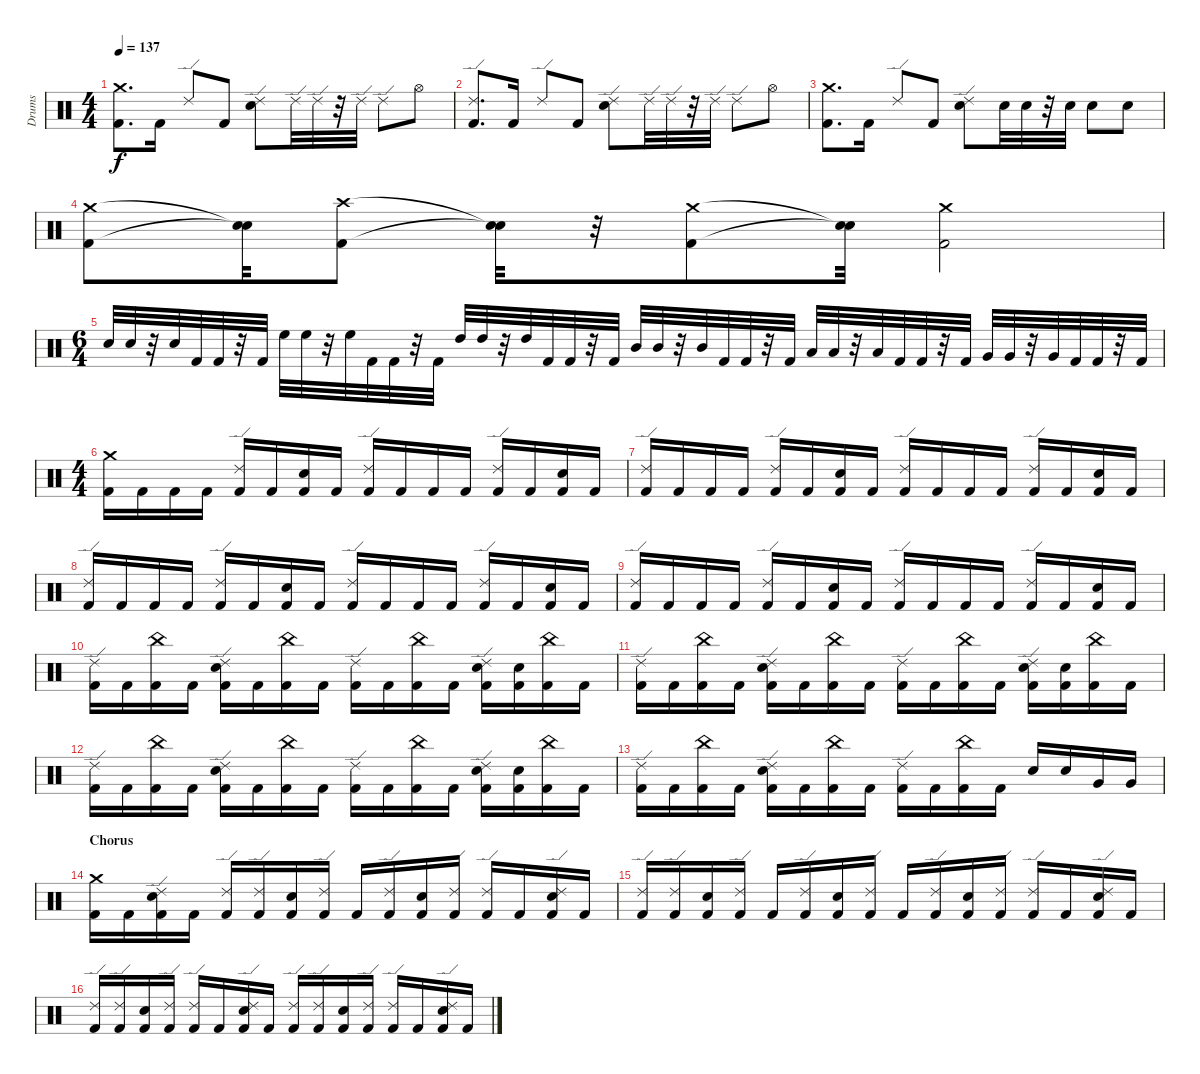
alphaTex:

\track ("Drums" "Drums") {instrument percussion}
\staff {score}
\articulation defaults
\ts (4 4)
\tempo 137
\clef neutral
\ks c
("Crash medium (hit)" "Kick (hit) 2").8{d dy f} "Kick (hit) 2".16 "Ride (edge) 2".8 "Kick (hit) 2".8 ("Ride (edge) 2" "Electric Snare (hit)").8 "Ride (edge) 2".32 "Ride (edge) 2".32 r.32 "Ride (edge) 2".32 "Ride (edge) 2".8 "Hi-Hat (open)".8 |
("Ride (edge) 2" "Kick (hit) 2").8{d} "Kick (hit) 2".16 "Ride (edge) 2".8 "Kick (hit) 2".8 ("Ride (edge) 2" "Electric Snare (hit)").8 "Ride (edge) 2".32 "Ride (edge) 2".32 r.32 "Ride (edge) 2".32 "Ride (edge) 2".8 "Hi-Hat (open)".8 |
("Crash medium (hit)" "Kick (hit) 2").8{d} "Kick (hit) 2".16 "Ride (edge) 2".8 "Kick (hit) 2".8 ("Ride (edge) 2" "Electric Snare (hit)").8 "Electric Snare (hit)".32 "Electric Snare (hit)".32 r.32 "Electric Snare (hit)".32 "Electric Snare (hit)".8 "Electric Snare (hit)".8 |
("Crash medium (hit)" "Kick (hit) 2").8 ("Snare (hit)"{t} "Snare (hit)"{t}).32 ("Crash high (hit)" "Kick (hit) 2").8 ("Snare (hit)"{t} "Snare (hit)"{t}).32 r.32 ("Crash medium (hit)" "Kick (hit) 2").8 ("Snare (hit)"{t} "Snare (hit)"{t}).32 ("Crash medium (hit)" "Kick (hit) 2").2 |
\ts (6 4)
"Electric Snare (hit)".32 "Electric Snare (hit)".32 r.32 "Electric Snare (hit)".32 "Kick (hit) 2".32 "Kick (hit) 2".32 r.32 "Kick (hit) 2".32 "High Floor Tom (hit)".32 "High Floor Tom (hit)".32 r.32 "High Floor Tom (hit)".32 "Kick (hit) 2".32 "Kick (hit) 2".32 r.32 "Kick (hit) 2".32 "High Tom (hit)".32 "High Tom (hit)".32 r.32 "High Tom (hit)".32 "Kick (hit) 2".32 "Kick (hit) 2".32 r.32 "Kick (hit) 2".32 "Mid Tom (hit)".32 "Mid Tom (hit)".32 r.32 "Mid Tom (hit)".32 "Kick (hit) 2".32 "Kick (hit) 2".32 r.32 "Kick (hit) 2".32 "Low Tom (hit)".32 "Low Tom (hit)".32 r.32 "Low Tom (hit)".32 "Kick (hit) 2".32 "Kick (hit) 2".32 r.32 "Kick (hit) 2".32 "Very Low Tom (hit)".32 "Very Low Tom (hit)".32 r.32 "Very Low Tom (hit)".32 "Kick (hit) 2".32 "Kick (hit) 2".32 r.32 "Kick (hit) 2".32 |
\ts (4 4)
("Crash medium (hit)" "Kick (hit) 2").16 "Kick (hit) 2".16 "Kick (hit) 2".16 "Kick (hit) 2".16 ("Ride (edge) 2" "Kick (hit) 2").16 "Kick (hit) 2".16 ("Electric Snare (hit)" "Kick (hit) 2").16 "Kick (hit) 2".16 ("Ride (edge) 2" "Kick (hit) 2").16 "Kick (hit) 2".16 "Kick (hit) 2".16 "Kick (hit) 2".16 ("Ride (edge) 2" "Kick (hit) 2").16 "Kick (hit) 2".16 ("Electric Snare (hit)" "Kick (hit) 2").16 "Kick (hit) 2".16 |
("Ride (edge) 2" "Kick (hit) 2").16 "Kick (hit) 2".16 "Kick (hit) 2".16 "Kick (hit) 2".16 ("Ride (edge) 2" "Kick (hit) 2").16 "Kick (hit) 2".16 ("Electric Snare (hit)" "Kick (hit) 2").16 "Kick (hit) 2".16 ("Ride (edge) 2" "Kick (hit) 2").16 "Kick (hit) 2".16 "Kick (hit) 2".16 "Kick (hit) 2".16 ("Ride (edge) 2" "Kick (hit) 2").16 "Kick (hit) 2".16 ("Electric Snare (hit)" "Kick (hit) 2").16 "Kick (hit) 2".16 |
("Ride (edge) 2" "Kick (hit) 2").16 "Kick (hit) 2".16 "Kick (hit) 2".16 "Kick (hit) 2".16 ("Ride (edge) 2" "Kick (hit) 2").16 "Kick (hit) 2".16 ("Electric Snare (hit)" "Kick (hit) 2").16 "Kick (hit) 2".16 ("Ride (edge) 2" "Kick (hit) 2").16 "Kick (hit) 2".16 "Kick (hit) 2".16 "Kick (hit) 2".16 ("Ride (edge) 2" "Kick (hit) 2").16 "Kick (hit) 2".16 ("Electric Snare (hit)" "Kick (hit) 2").16 "Kick (hit) 2".16 |
("Ride (edge) 2" "Kick (hit) 2").16 "Kick (hit) 2".16 "Kick (hit) 2".16 "Kick (hit) 2".16 ("Ride (edge) 2" "Kick (hit) 2").16 "Kick (hit) 2".16 ("Electric Snare (hit)" "Kick (hit) 2").16 "Kick (hit) 2".16 ("Ride (edge) 2" "Kick (hit) 2").16 "Kick (hit) 2".16 "Kick (hit) 2".16 "Kick (hit) 2".16 ("Ride (edge) 2" "Kick (hit) 2").16 "Kick (hit) 2".16 ("Electric Snare (hit)" "Kick (hit) 2").16 "Kick (hit) 2".16 |
("Ride (edge) 2" "Kick (hit) 2").16 "Kick (hit) 2".16 ("China (hit)" "Kick (hit) 2").16 "Kick (hit) 2".16 ("Ride (edge) 2" "Electric Snare (hit)" "Kick (hit) 2").16 "Kick (hit) 2".16 ("China (hit)" "Kick (hit) 2").16 "Kick (hit) 2".16 ("Ride (edge) 2" "Kick (hit) 2").16 "Kick (hit) 2".16 ("China (hit)" "Kick (hit) 2").16 "Kick (hit) 2".16 ("Ride (edge) 2" "Electric Snare (hit)" "Kick (hit) 2").16 ("Electric Snare (hit)" "Kick (hit) 2").16 ("China (hit)" "Kick (hit) 2").16 "Kick (hit) 2".16 |
("Ride (edge) 2" "Kick (hit) 2").16 "Kick (hit) 2".16 ("China (hit)" "Kick (hit) 2").16 "Kick (hit) 2".16 ("Ride (edge) 2" "Electric Snare (hit)" "Kick (hit) 2").16 "Kick (hit) 2".16 ("China (hit)" "Kick (hit) 2").16 "Kick (hit) 2".16 ("Ride (edge) 2" "Kick (hit) 2").16 "Kick (hit) 2".16 ("China (hit)" "Kick (hit) 2").16 "Kick (hit) 2".16 ("Ride (edge) 2" "Electric Snare (hit)" "Kick (hit) 2").16 ("Electric Snare (hit)" "Kick (hit) 2").16 ("China (hit)" "Kick (hit) 2").16 "Kick (hit) 2".16 |
("Ride (edge) 2" "Kick (hit) 2").16 "Kick (hit) 2".16 ("China (hit)" "Kick (hit) 2").16 "Kick (hit) 2".16 ("Ride (edge) 2" "Electric Snare (hit)" "Kick (hit) 2").16 "Kick (hit) 2".16 ("China (hit)" "Kick (hit) 2").16 "Kick (hit) 2".16 ("Ride (edge) 2" "Kick (hit) 2").16 "Kick (hit) 2".16 ("China (hit)" "Kick (hit) 2").16 "Kick (hit) 2".16 ("Ride (edge) 2" "Electric Snare (hit)" "Kick (hit) 2").16 ("Electric Snare (hit)" "Kick (hit) 2").16 ("China (hit)" "Kick (hit) 2").16 "Kick (hit) 2".16 |
("Ride (edge) 2" "Kick (hit) 2").16 "Kick (hit) 2".16 ("China (hit)" "Kick (hit) 2").16 "Kick (hit) 2".16 ("Ride (edge) 2" "Electric Snare (hit)" "Kick (hit) 2").16 "Kick (hit) 2".16 ("China (hit)" "Kick (hit) 2").16 "Kick (hit) 2".16 ("Ride (edge) 2" "Kick (hit) 2").16 "Kick (hit) 2".16 ("China (hit)" "Kick (hit) 2").16 "Kick (hit) 2".16 "Electric Snare (hit)".16 "Electric Snare (hit)".16 "Very Low Tom (hit)".16 "Very Low Tom (hit)".16 |
\section ("" "Chorus")
("Crash medium (hit)" "Kick (hit) 2").16 "Kick (hit) 2".16 ("Ride (edge) 2" "Electric Snare (hit)" "Kick (hit) 2").16 "Kick (hit) 2".16 ("Ride (edge) 2" "Kick (hit) 2").16 ("Ride (edge) 2" "Kick (hit) 2").16 ("Electric Snare (hit)" "Kick (hit) 2").16 ("Ride (edge) 2" "Kick (hit) 2").16 "Kick (hit) 2".16 ("Ride (edge) 2" "Kick (hit) 2").16 ("Electric Snare (hit)" "Kick (hit) 2").16 ("Ride (edge) 2" "Kick (hit) 2").16 ("Ride (edge) 2" "Kick (hit) 2").16 "Kick (hit) 2".16 ("Ride (edge) 2" "Electric Snare (hit)" "Kick (hit) 2").16 "Kick (hit) 2".16 |
("Ride (edge) 2" "Kick (hit) 2").16 ("Ride (edge) 2" "Kick (hit) 2").16 ("Electric Snare (hit)" "Kick (hit) 2").16 ("Ride (edge) 2" "Kick (hit) 2").16 "Kick (hit) 2".16 ("Ride (edge) 2" "Kick (hit) 2").16 ("Electric Snare (hit)" "Kick (hit) 2").16 ("Ride (edge) 2" "Kick (hit) 2").16 "Kick (hit) 2".16 ("Ride (edge) 2" "Kick (hit) 2").16 ("Electric Snare (hit)" "Kick (hit) 2").16 ("Ride (edge) 2" "Kick (hit) 2").16 ("Ride (edge) 2" "Kick (hit) 2").16 "Kick (hit) 2".16 ("Ride (edge) 2" "Electric Snare (hit)" "Kick (hit) 2").16 "Kick (hit) 2".16 |
("Ride (edge) 2" "Kick (hit) 2").16 ("Ride (edge) 2" "Kick (hit) 2").16 ("Electric Snare (hit)" "Kick (hit) 2").16 ("Ride (edge) 2" "Kick (hit) 2").16 ("Ride (edge) 2" "Kick (hit) 2").16 "Kick (hit) 2".16 ("Ride (edge) 2" "Electric Snare (hit)" "Kick (hit) 2").16 "Kick (hit) 2".16 ("Ride (edge) 2" "Kick (hit) 2").16 ("Ride (edge) 2" "Kick (hit) 2").16 ("Electric Snare (hit)" "Kick (hit) 2").16 ("Ride (edge) 2" "Kick (hit) 2").16 ("Ride (edge) 2" "Kick (hit) 2").16 "Kick (hit) 2".16 ("Ride (edge) 2" "Electric Snare (hit)" "Kick (hit) 2").16 "Kick (hit) 2".16
